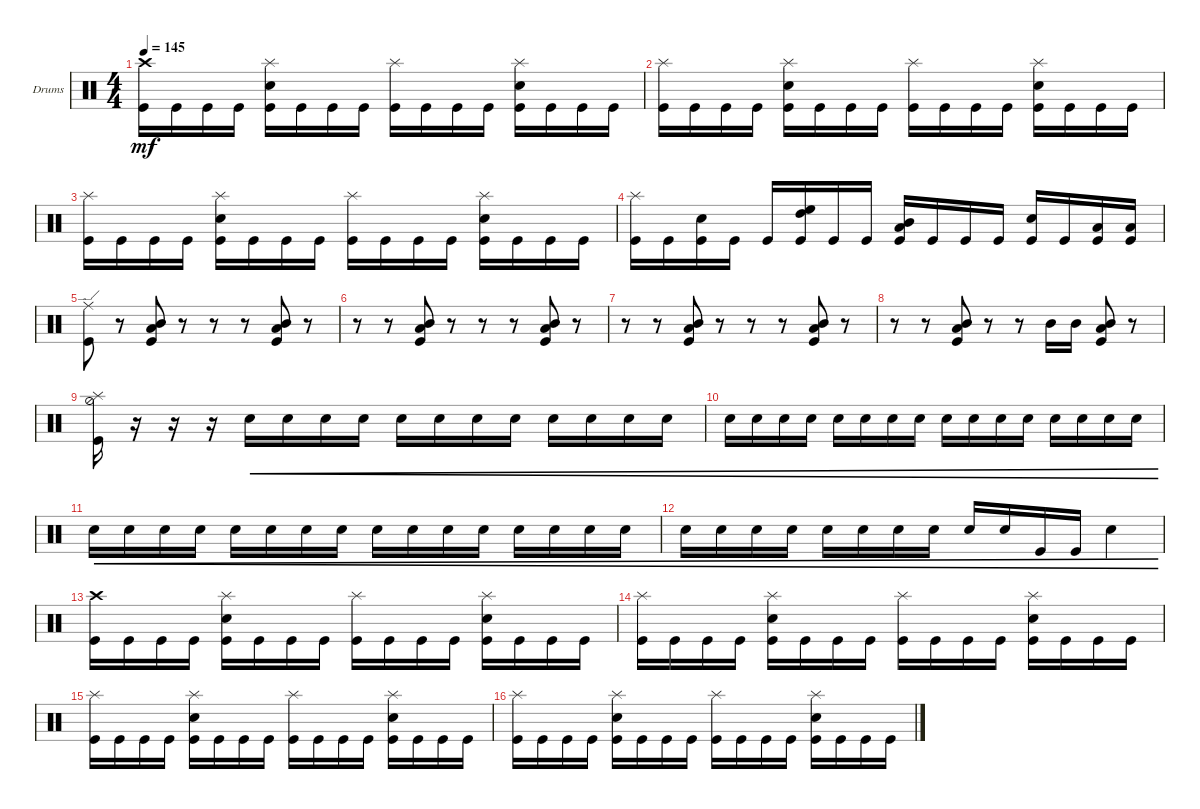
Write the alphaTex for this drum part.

\bracketExtendMode groupsimilarinstruments
\firstSystemTrackNameOrientation horizontal
\otherSystemsTrackNameOrientation horizontal
\track ("Drumkit" "Drums") {instrument percussion}
\staff {score}
\articulation defaults
\ts (4 4)
\tempo 145
\clef neutral
\ks c
("Kick (hit)" "Crash high (hit)").16{dy mf} "Kick (hit)".16 "Kick (hit)".16 "Kick (hit)".16 ("Kick (hit)" "Snare (hit) 2" "Splash (hit)").16 "Kick (hit)".16 "Kick (hit)".16 "Kick (hit)".16 ("Kick (hit)" "Splash (hit)").16 "Kick (hit)".16 "Kick (hit)".16 "Kick (hit)".16 ("Kick (hit)" "Snare (hit) 2" "Splash (hit)").16 "Kick (hit)".16 "Kick (hit)".16 "Kick (hit)".16 |
("Kick (hit)" "Splash (hit)").16 "Kick (hit)".16 "Kick (hit)".16 "Kick (hit)".16 ("Kick (hit)" "Snare (hit) 2" "Splash (hit)").16 "Kick (hit)".16 "Kick (hit)".16 "Kick (hit)".16 ("Kick (hit)" "Splash (hit)").16 "Kick (hit)".16 "Kick (hit)".16 "Kick (hit)".16 ("Kick (hit)" "Snare (hit) 2" "Splash (hit)").16 "Kick (hit)".16 "Kick (hit)".16 "Kick (hit)".16 |
("Kick (hit)" "Splash (hit)").16 "Kick (hit)".16 "Kick (hit)".16 "Kick (hit)".16 ("Kick (hit)" "Snare (hit) 2" "Splash (hit)").16 "Kick (hit)".16 "Kick (hit)".16 "Kick (hit)".16 ("Kick (hit)" "Splash (hit)").16 "Kick (hit)".16 "Kick (hit)".16 "Kick (hit)".16 ("Kick (hit)" "Snare (hit) 2" "Splash (hit)").16 "Kick (hit)".16 "Kick (hit)".16 "Kick (hit)".16 |
("Kick (hit)" "Splash (hit)").16 "Kick (hit)".16 ("Snare (hit) 2" "Kick (hit)").16 "Kick (hit)".16 "Kick (hit)".16 ("High Tom (hit)" "High Floor Tom (hit)" "Kick (hit)").16 "Kick (hit)".16 "Kick (hit)".16 ("Mid Tom (hit)" "Low Tom (hit)" "Kick (hit)").16 "Kick (hit)".16 "Kick (hit)".16 "Kick (hit)".16 ("Snare (hit) 2" "Kick (hit)").16 "Kick (hit)".16 ("Low Tom (hit)" "Kick (hit)").16 ("Low Tom (hit)" "Kick (hit)").16 |
("Kick (hit)" "Ride (edge)").8 r.8 ("Kick (hit)" "Mid Tom (hit)" "Low Tom (hit)").8 r.8 r.8 r.8 ("Kick (hit)" "Mid Tom (hit)" "Low Tom (hit)").8 r.8 |
r.8 r.8 ("Kick (hit)" "Mid Tom (hit)" "Low Tom (hit)").8 r.8 r.8 r.8 ("Kick (hit)" "Mid Tom (hit)" "Low Tom (hit)").8 r.8 |
r.8 r.8 ("Kick (hit)" "Mid Tom (hit)" "Low Tom (hit)").8 r.8 r.8 r.8 ("Kick (hit)" "Mid Tom (hit)" "Low Tom (hit)").8 r.8 |
r.8 r.8 ("Kick (hit)" "Mid Tom (hit)" "Low Tom (hit)").8 r.8 r.8 "Mid Tom (hit)".16 "Mid Tom (hit)".16 ("Kick (hit)" "Mid Tom (hit)" "Low Tom (hit)").8 r.8 |
("Kick (hit)" "Hi-Hat (half)" "Splash (hit)").16 r.16 r.16 r.16 "Snare (hit) 2".16{cre} "Snare (hit) 2".16{cre} "Snare (hit) 2".16{cre} "Snare (hit) 2".16{cre} "Snare (hit) 2".16{cre} "Snare (hit) 2".16{cre} "Snare (hit) 2".16{cre} "Snare (hit) 2".16{cre} "Snare (hit) 2".16{cre} "Snare (hit) 2".16{cre} "Snare (hit) 2".16{cre} "Snare (hit) 2".16{cre} |
"Snare (hit) 2".16{cre} "Snare (hit) 2".16{cre} "Snare (hit) 2".16{cre} "Snare (hit) 2".16{cre} "Snare (hit) 2".16{cre} "Snare (hit) 2".16{cre} "Snare (hit) 2".16{cre} "Snare (hit) 2".16{cre} "Snare (hit) 2".16{cre} "Snare (hit) 2".16{cre} "Snare (hit) 2".16{cre} "Snare (hit) 2".16{cre} "Snare (hit) 2".16{cre} "Snare (hit) 2".16{cre} "Snare (hit) 2".16{cre} "Snare (hit) 2".16{cre} |
"Snare (hit) 2".16{cre} "Snare (hit) 2".16{cre} "Snare (hit) 2".16{cre} "Snare (hit) 2".16{cre} "Snare (hit) 2".16{cre} "Snare (hit) 2".16{cre} "Snare (hit) 2".16{cre} "Snare (hit) 2".16{cre} "Snare (hit) 2".16{cre} "Snare (hit) 2".16{cre} "Snare (hit) 2".16{cre} "Snare (hit) 2".16{cre} "Snare (hit) 2".16{cre} "Snare (hit) 2".16{cre} "Snare (hit) 2".16{cre} "Snare (hit) 2".16{cre} |
"Snare (hit) 2".16{cre} "Snare (hit) 2".16{cre} "Snare (hit) 2".16{cre} "Snare (hit) 2".16{cre} "Snare (hit) 2".16{cre} "Snare (hit) 2".16{cre} "Snare (hit) 2".16{cre} "Snare (hit) 2".16{cre} "Snare (hit) 2".16{cre} "Snare (hit) 2".16{cre} "Kick (hit)".16{cre} "Kick (hit)".16{cre} "Snare (hit) 2".4{cre} |
("Kick (hit)" "Crash high (hit)").16 "Kick (hit)".16 "Kick (hit)".16 "Kick (hit)".16 ("Kick (hit)" "Snare (hit) 2" "Splash (hit)").16 "Kick (hit)".16 "Kick (hit)".16 "Kick (hit)".16 ("Kick (hit)" "Splash (hit)").16 "Kick (hit)".16 "Kick (hit)".16 "Kick (hit)".16 ("Kick (hit)" "Snare (hit) 2" "Splash (hit)").16 "Kick (hit)".16 "Kick (hit)".16 "Kick (hit)".16 |
("Kick (hit)" "Splash (hit)").16 "Kick (hit)".16 "Kick (hit)".16 "Kick (hit)".16 ("Kick (hit)" "Snare (hit) 2" "Splash (hit)").16 "Kick (hit)".16 "Kick (hit)".16 "Kick (hit)".16 ("Kick (hit)" "Splash (hit)").16 "Kick (hit)".16 "Kick (hit)".16 "Kick (hit)".16 ("Kick (hit)" "Snare (hit) 2" "Splash (hit)").16 "Kick (hit)".16 "Kick (hit)".16 "Kick (hit)".16 |
("Kick (hit)" "Splash (hit)").16 "Kick (hit)".16 "Kick (hit)".16 "Kick (hit)".16 ("Kick (hit)" "Snare (hit) 2" "Splash (hit)").16 "Kick (hit)".16 "Kick (hit)".16 "Kick (hit)".16 ("Kick (hit)" "Splash (hit)").16 "Kick (hit)".16 "Kick (hit)".16 "Kick (hit)".16 ("Kick (hit)" "Snare (hit) 2" "Splash (hit)").16 "Kick (hit)".16 "Kick (hit)".16 "Kick (hit)".16 |
("Kick (hit)" "Splash (hit)").16 "Kick (hit)".16 "Kick (hit)".16 "Kick (hit)".16 ("Kick (hit)" "Snare (hit) 2" "Splash (hit)").16 "Kick (hit)".16 "Kick (hit)".16 "Kick (hit)".16 ("Kick (hit)" "Splash (hit)").16 "Kick (hit)".16 "Kick (hit)".16 "Kick (hit)".16 ("Kick (hit)" "Snare (hit) 2" "Splash (hit)").16 "Kick (hit)".16 "Kick (hit)".16 "Kick (hit)".16
